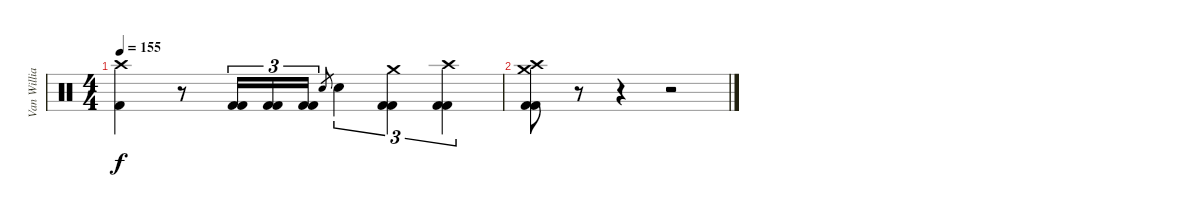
\track ("Van Williams" "Van Willia") {instrument percussion}
\staff {score}
\articulation defaults
\ts (4 4)
\tempo 155
\clef neutral
\ks c
("Crash high (hit)" "Kick (hit) 2").4{dy f} r.8 ("Kick (hit) 2" "Kick (hit) 2").16{tu (3 2)} ("Kick (hit) 2" "Kick (hit) 2").16{tu (3 2)} ("Kick (hit) 2" "Kick (hit) 2").16{tu (3 2)} "Electric Snare (hit)".8{gr} "Electric Snare (hit)".4{tu (3 2)} ("Crash medium (hit)" "Kick (hit) 2" "Kick (hit) 2").4{tu (3 2)} ("Crash high (hit)" "Kick (hit) 2" "Kick (hit) 2").4{tu (3 2)} |
("Crash medium (hit)" "Crash high (hit)" "Kick (hit) 2" "Kick (hit) 2").8 r.8{volume 0} r.4 r.2
